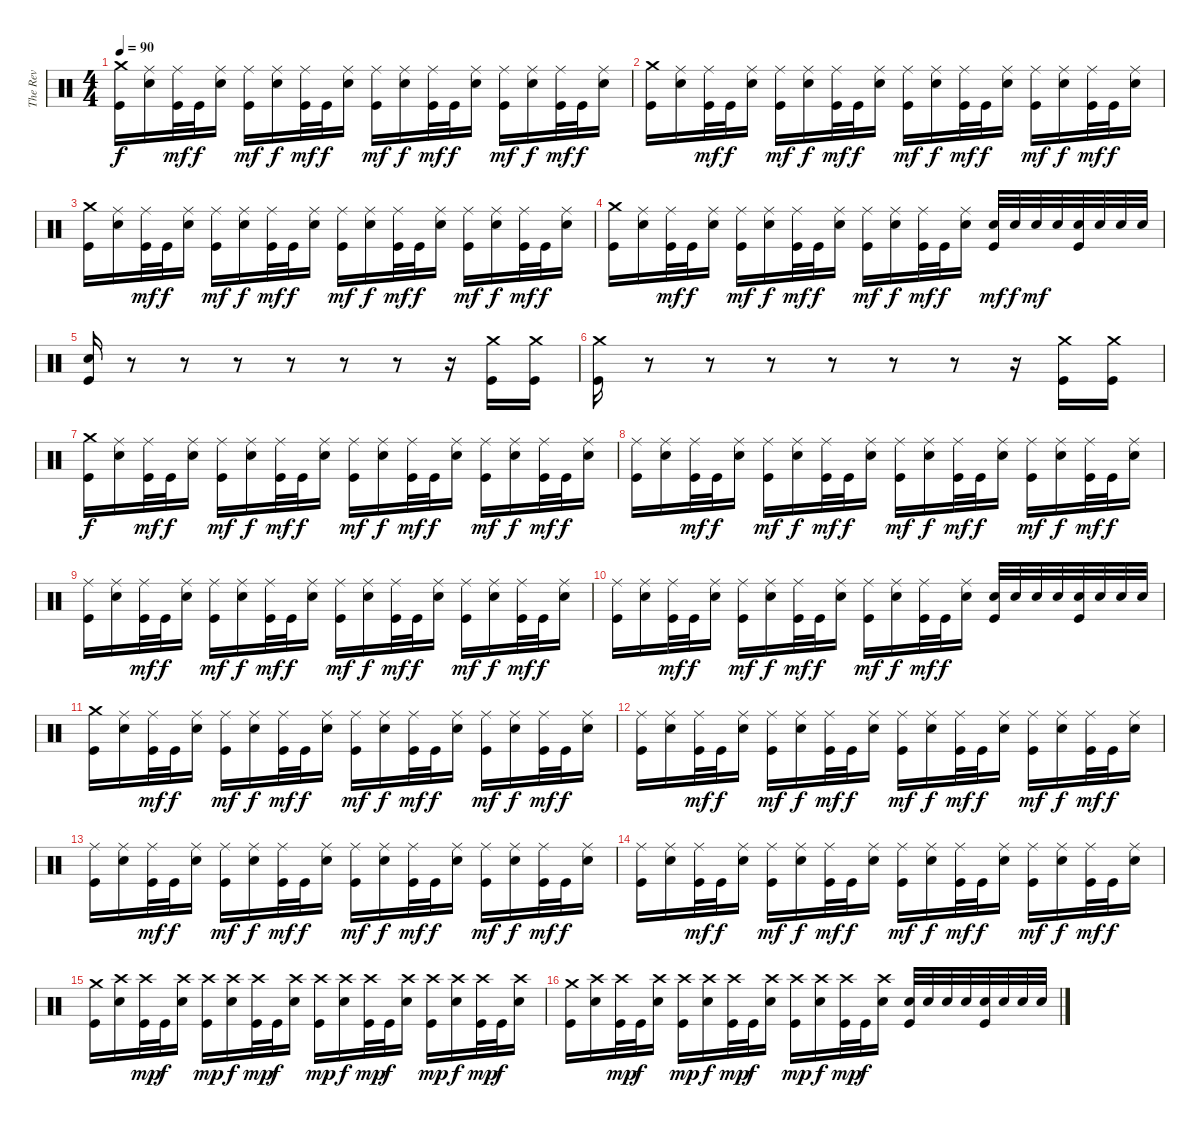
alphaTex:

\track ("The Rev" "The Rev") {instrument percussion}
\staff {score}
\articulation defaults
\ts (4 4)
\tempo 90
\clef neutral
\ks c
("Crash medium (hit)" "Kick (hit)").16{dy f} ("Ride (middle)" "Electric Snare (hit)").16 ("Ride (middle)" "Kick (hit)").32{dy mf} "Kick (hit)".32{dy f} ("Ride (middle)" "Electric Snare (hit)").16 ("Ride (middle)" "Kick (hit)").16{dy mf} ("Ride (middle)" "Electric Snare (hit)").16{dy f} ("Ride (middle)" "Kick (hit)").32{dy mf} "Kick (hit)".32{dy f} ("Ride (middle)" "Electric Snare (hit)").16 ("Ride (middle)" "Kick (hit)").16{dy mf} ("Ride (middle)" "Electric Snare (hit)").16{dy f} ("Ride (middle)" "Kick (hit)").32{dy mf} "Kick (hit)".32{dy f} ("Ride (middle)" "Electric Snare (hit)").16 ("Ride (middle)" "Kick (hit)").16{dy mf} ("Ride (middle)" "Electric Snare (hit)").16{dy f} ("Ride (middle)" "Kick (hit)").32{dy mf} "Kick (hit)".32{dy f} ("Ride (middle)" "Electric Snare (hit)").16 |
("Crash medium (hit)" "Kick (hit)").16 ("Ride (middle)" "Electric Snare (hit)").16 ("Ride (middle)" "Kick (hit)").32{dy mf} "Kick (hit)".32{dy f} ("Ride (middle)" "Electric Snare (hit)").16 ("Ride (middle)" "Kick (hit)").16{dy mf} ("Ride (middle)" "Electric Snare (hit)").16{dy f} ("Ride (middle)" "Kick (hit)").32{dy mf} "Kick (hit)".32{dy f} ("Ride (middle)" "Electric Snare (hit)").16 ("Ride (middle)" "Kick (hit)").16{dy mf} ("Ride (middle)" "Electric Snare (hit)").16{dy f} ("Ride (middle)" "Kick (hit)").32{dy mf} "Kick (hit)".32{dy f} ("Ride (middle)" "Electric Snare (hit)").16 ("Ride (middle)" "Kick (hit)").16{dy mf} ("Ride (middle)" "Electric Snare (hit)").16{dy f} ("Ride (middle)" "Kick (hit)").32{dy mf} "Kick (hit)".32{dy f} ("Ride (middle)" "Electric Snare (hit)").16 |
("Crash medium (hit)" "Kick (hit)").16 ("Ride (middle)" "Electric Snare (hit)").16 ("Ride (middle)" "Kick (hit)").32{dy mf} "Kick (hit)".32{dy f} ("Ride (middle)" "Electric Snare (hit)").16 ("Ride (middle)" "Kick (hit)").16{dy mf} ("Ride (middle)" "Electric Snare (hit)").16{dy f} ("Ride (middle)" "Kick (hit)").32{dy mf} "Kick (hit)".32{dy f} ("Ride (middle)" "Electric Snare (hit)").16 ("Ride (middle)" "Kick (hit)").16{dy mf} ("Ride (middle)" "Electric Snare (hit)").16{dy f} ("Ride (middle)" "Kick (hit)").32{dy mf} "Kick (hit)".32{dy f} ("Ride (middle)" "Electric Snare (hit)").16 ("Ride (middle)" "Kick (hit)").16{dy mf} ("Ride (middle)" "Electric Snare (hit)").16{dy f} ("Ride (middle)" "Kick (hit)").32{dy mf} "Kick (hit)".32{dy f} ("Ride (middle)" "Electric Snare (hit)").16 |
("Crash medium (hit)" "Kick (hit)").16 ("Ride (middle)" "Electric Snare (hit)").16 ("Ride (middle)" "Kick (hit)").32{dy mf} "Kick (hit)".32{dy f} ("Ride (middle)" "Electric Snare (hit)").16 ("Ride (middle)" "Kick (hit)").16{dy mf} ("Ride (middle)" "Electric Snare (hit)").16{dy f} ("Ride (middle)" "Kick (hit)").32{dy mf} "Kick (hit)".32{dy f} ("Ride (middle)" "Electric Snare (hit)").16 ("Ride (middle)" "Kick (hit)").16{dy mf} ("Ride (middle)" "Electric Snare (hit)").16{dy f} ("Ride (middle)" "Kick (hit)").32{dy mf} "Kick (hit)".32{dy f} ("Ride (middle)" "Electric Snare (hit)").16 ("Electric Snare (hit)" "Kick (hit)").32{dy mf} "Electric Snare (hit)".32{dy f} "Electric Snare (hit)".32{dy mf} "Electric Snare (hit)".32 ("Electric Snare (hit)" "Kick (hit)").32 "Electric Snare (hit)".32 "Electric Snare (hit)".32 "Electric Snare (hit)".32 |
("Electric Snare (hit)" "Kick (hit)").16 r.8 r.8 r.8 r.8 r.8 r.8 r.16 ("Crash medium (hit)" "Kick (hit)").16 ("Crash medium (hit)" "Kick (hit)").16 |
("Crash medium (hit)" "Kick (hit)").16 r.8 r.8 r.8 r.8 r.8 r.8 r.16 ("Crash medium (hit)" "Kick (hit)").16 ("Crash medium (hit)" "Kick (hit)").16 |
("Crash medium (hit)" "Kick (hit)").16{dy f} ("Ride (middle)" "Electric Snare (hit)").16 ("Ride (middle)" "Kick (hit)").32{dy mf} "Kick (hit)".32{dy f} ("Ride (middle)" "Electric Snare (hit)").16 ("Ride (middle)" "Kick (hit)").16{dy mf} ("Ride (middle)" "Electric Snare (hit)").16{dy f} ("Ride (middle)" "Kick (hit)").32{dy mf} "Kick (hit)".32{dy f} ("Ride (middle)" "Electric Snare (hit)").16 ("Ride (middle)" "Kick (hit)").16{dy mf} ("Ride (middle)" "Electric Snare (hit)").16{dy f} ("Ride (middle)" "Kick (hit)").32{dy mf} "Kick (hit)".32{dy f} ("Ride (middle)" "Electric Snare (hit)").16 ("Ride (middle)" "Kick (hit)").16{dy mf} ("Ride (middle)" "Electric Snare (hit)").16{dy f} ("Ride (middle)" "Kick (hit)").32{dy mf} "Kick (hit)".32{dy f} ("Ride (middle)" "Electric Snare (hit)").16 |
("Ride (middle)" "Kick (hit)").16 ("Ride (middle)" "Electric Snare (hit)").16 ("Ride (middle)" "Kick (hit)").32{dy mf} "Kick (hit)".32{dy f} ("Ride (middle)" "Electric Snare (hit)").16 ("Ride (middle)" "Kick (hit)").16{dy mf} ("Ride (middle)" "Electric Snare (hit)").16{dy f} ("Ride (middle)" "Kick (hit)").32{dy mf} "Kick (hit)".32{dy f} ("Ride (middle)" "Electric Snare (hit)").16 ("Ride (middle)" "Kick (hit)").16{dy mf} ("Ride (middle)" "Electric Snare (hit)").16{dy f} ("Ride (middle)" "Kick (hit)").32{dy mf} "Kick (hit)".32{dy f} ("Ride (middle)" "Electric Snare (hit)").16 ("Ride (middle)" "Kick (hit)").16{dy mf} ("Ride (middle)" "Electric Snare (hit)").16{dy f} ("Ride (middle)" "Kick (hit)").32{dy mf} "Kick (hit)".32{dy f} ("Ride (middle)" "Electric Snare (hit)").16 |
("Ride (middle)" "Kick (hit)").16 ("Ride (middle)" "Electric Snare (hit)").16 ("Ride (middle)" "Kick (hit)").32{dy mf} "Kick (hit)".32{dy f} ("Ride (middle)" "Electric Snare (hit)").16 ("Ride (middle)" "Kick (hit)").16{dy mf} ("Ride (middle)" "Electric Snare (hit)").16{dy f} ("Ride (middle)" "Kick (hit)").32{dy mf} "Kick (hit)".32{dy f} ("Ride (middle)" "Electric Snare (hit)").16 ("Ride (middle)" "Kick (hit)").16{dy mf} ("Ride (middle)" "Electric Snare (hit)").16{dy f} ("Ride (middle)" "Kick (hit)").32{dy mf} "Kick (hit)".32{dy f} ("Ride (middle)" "Electric Snare (hit)").16 ("Ride (middle)" "Kick (hit)").16{dy mf} ("Ride (middle)" "Electric Snare (hit)").16{dy f} ("Ride (middle)" "Kick (hit)").32{dy mf} "Kick (hit)".32{dy f} ("Ride (middle)" "Electric Snare (hit)").16 |
("Ride (middle)" "Kick (hit)").16 ("Ride (middle)" "Electric Snare (hit)").16 ("Ride (middle)" "Kick (hit)").32{dy mf} "Kick (hit)".32{dy f} ("Ride (middle)" "Electric Snare (hit)").16 ("Ride (middle)" "Kick (hit)").16{dy mf} ("Ride (middle)" "Electric Snare (hit)").16{dy f} ("Ride (middle)" "Kick (hit)").32{dy mf} "Kick (hit)".32{dy f} ("Ride (middle)" "Electric Snare (hit)").16 ("Ride (middle)" "Kick (hit)").16{dy mf} ("Ride (middle)" "Electric Snare (hit)").16{dy f} ("Ride (middle)" "Kick (hit)").32{dy mf} "Kick (hit)".32{dy f} ("Ride (middle)" "Electric Snare (hit)").16 ("Electric Snare (hit)" "Kick (hit)").32 "Electric Snare (hit)".32 "Electric Snare (hit)".32 "Electric Snare (hit)".32 ("Electric Snare (hit)" "Kick (hit)").32 "Electric Snare (hit)".32 "Electric Snare (hit)".32 "Electric Snare (hit)".32 |
("Crash medium (hit)" "Kick (hit)").16 ("Ride (middle)" "Electric Snare (hit)").16 ("Ride (middle)" "Kick (hit)").32{dy mf} "Kick (hit)".32{dy f} ("Ride (middle)" "Electric Snare (hit)").16 ("Ride (middle)" "Kick (hit)").16{dy mf} ("Ride (middle)" "Electric Snare (hit)").16{dy f} ("Ride (middle)" "Kick (hit)").32{dy mf} "Kick (hit)".32{dy f} ("Ride (middle)" "Electric Snare (hit)").16 ("Ride (middle)" "Kick (hit)").16{dy mf} ("Ride (middle)" "Electric Snare (hit)").16{dy f} ("Ride (middle)" "Kick (hit)").32{dy mf} "Kick (hit)".32{dy f} ("Ride (middle)" "Electric Snare (hit)").16 ("Ride (middle)" "Kick (hit)").16{dy mf} ("Ride (middle)" "Electric Snare (hit)").16{dy f} ("Ride (middle)" "Kick (hit)").32{dy mf} "Kick (hit)".32{dy f} ("Ride (middle)" "Electric Snare (hit)").16 |
("Ride (middle)" "Kick (hit)").16 ("Ride (middle)" "Electric Snare (hit)").16 ("Ride (middle)" "Kick (hit)").32{dy mf} "Kick (hit)".32{dy f} ("Ride (middle)" "Electric Snare (hit)").16 ("Ride (middle)" "Kick (hit)").16{dy mf} ("Ride (middle)" "Electric Snare (hit)").16{dy f} ("Ride (middle)" "Kick (hit)").32{dy mf} "Kick (hit)".32{dy f} ("Ride (middle)" "Electric Snare (hit)").16 ("Ride (middle)" "Kick (hit)").16{dy mf} ("Ride (middle)" "Electric Snare (hit)").16{dy f} ("Ride (middle)" "Kick (hit)").32{dy mf} "Kick (hit)".32{dy f} ("Ride (middle)" "Electric Snare (hit)").16 ("Ride (middle)" "Kick (hit)").16{dy mf} ("Ride (middle)" "Electric Snare (hit)").16{dy f} ("Ride (middle)" "Kick (hit)").32{dy mf} "Kick (hit)".32{dy f} ("Ride (middle)" "Electric Snare (hit)").16 |
("Ride (middle)" "Kick (hit)").16 ("Ride (middle)" "Electric Snare (hit)").16 ("Ride (middle)" "Kick (hit)").32{dy mf} "Kick (hit)".32{dy f} ("Ride (middle)" "Electric Snare (hit)").16 ("Ride (middle)" "Kick (hit)").16{dy mf} ("Ride (middle)" "Electric Snare (hit)").16{dy f} ("Ride (middle)" "Kick (hit)").32{dy mf} "Kick (hit)".32{dy f} ("Ride (middle)" "Electric Snare (hit)").16 ("Ride (middle)" "Kick (hit)").16{dy mf} ("Ride (middle)" "Electric Snare (hit)").16{dy f} ("Ride (middle)" "Kick (hit)").32{dy mf} "Kick (hit)".32{dy f} ("Ride (middle)" "Electric Snare (hit)").16 ("Ride (middle)" "Kick (hit)").16{dy mf} ("Ride (middle)" "Electric Snare (hit)").16{dy f} ("Ride (middle)" "Kick (hit)").32{dy mf} "Kick (hit)".32{dy f} ("Ride (middle)" "Electric Snare (hit)").16 |
("Ride (middle)" "Kick (hit)").16 ("Ride (middle)" "Electric Snare (hit)").16 ("Ride (middle)" "Kick (hit)").32{dy mf} "Kick (hit)".32{dy f} ("Ride (middle)" "Electric Snare (hit)").16 ("Ride (middle)" "Kick (hit)").16{dy mf} ("Ride (middle)" "Electric Snare (hit)").16{dy f} ("Ride (middle)" "Kick (hit)").32{dy mf} "Kick (hit)".32{dy f} ("Ride (middle)" "Electric Snare (hit)").16 ("Ride (middle)" "Kick (hit)").16{dy mf} ("Ride (middle)" "Electric Snare (hit)").16{dy f} ("Ride (middle)" "Kick (hit)").32{dy mf} "Kick (hit)".32{dy f} ("Ride (middle)" "Electric Snare (hit)").16 ("Ride (middle)" "Kick (hit)").16{dy mf} ("Ride (middle)" "Electric Snare (hit)").16{dy f} ("Ride (middle)" "Kick (hit)").32{dy mf} "Kick (hit)".32{dy f} ("Ride (middle)" "Electric Snare (hit)").16 |
("Crash medium (hit)" "Kick (hit)").16 ("Crash high (hit)" "Electric Snare (hit)").16 ("Crash high (hit)" "Kick (hit)").32{dy mp} "Kick (hit)".32{dy f} ("Crash high (hit)" "Electric Snare (hit)").16 ("Crash high (hit)" "Kick (hit)").16{dy mp} ("Crash high (hit)" "Electric Snare (hit)").16{dy f} ("Crash high (hit)" "Kick (hit)").32{dy mp} "Kick (hit)".32{dy f} ("Crash high (hit)" "Electric Snare (hit)").16 ("Crash high (hit)" "Kick (hit)").16{dy mp} ("Crash high (hit)" "Electric Snare (hit)").16{dy f} ("Crash high (hit)" "Kick (hit)").32{dy mp} "Kick (hit)".32{dy f} ("Crash high (hit)" "Electric Snare (hit)").16 ("Crash high (hit)" "Kick (hit)").16{dy mp} ("Crash high (hit)" "Electric Snare (hit)").16{dy f} ("Crash high (hit)" "Kick (hit)").32{dy mp} "Kick (hit)".32{dy f} ("Crash high (hit)" "Electric Snare (hit)").16 |
("Crash medium (hit)" "Kick (hit)").16 ("Crash high (hit)" "Electric Snare (hit)").16 ("Crash high (hit)" "Kick (hit)").32{dy mp} "Kick (hit)".32{dy f} ("Crash high (hit)" "Electric Snare (hit)").16 ("Crash high (hit)" "Kick (hit)").16{dy mp} ("Crash high (hit)" "Electric Snare (hit)").16{dy f} ("Crash high (hit)" "Kick (hit)").32{dy mp} "Kick (hit)".32{dy f} ("Crash high (hit)" "Electric Snare (hit)").16 ("Crash high (hit)" "Kick (hit)").16{dy mp} ("Crash high (hit)" "Electric Snare (hit)").16{dy f} ("Crash high (hit)" "Kick (hit)").32{dy mp} "Kick (hit)".32{dy f} ("Crash high (hit)" "Electric Snare (hit)").16 ("Electric Snare (hit)" "Kick (hit)").32 "Electric Snare (hit)".32 "Electric Snare (hit)".32 "Electric Snare (hit)".32 ("Electric Snare (hit)" "Kick (hit)").32 "Electric Snare (hit)".32 "Electric Snare (hit)".32 "Electric Snare (hit)".32
